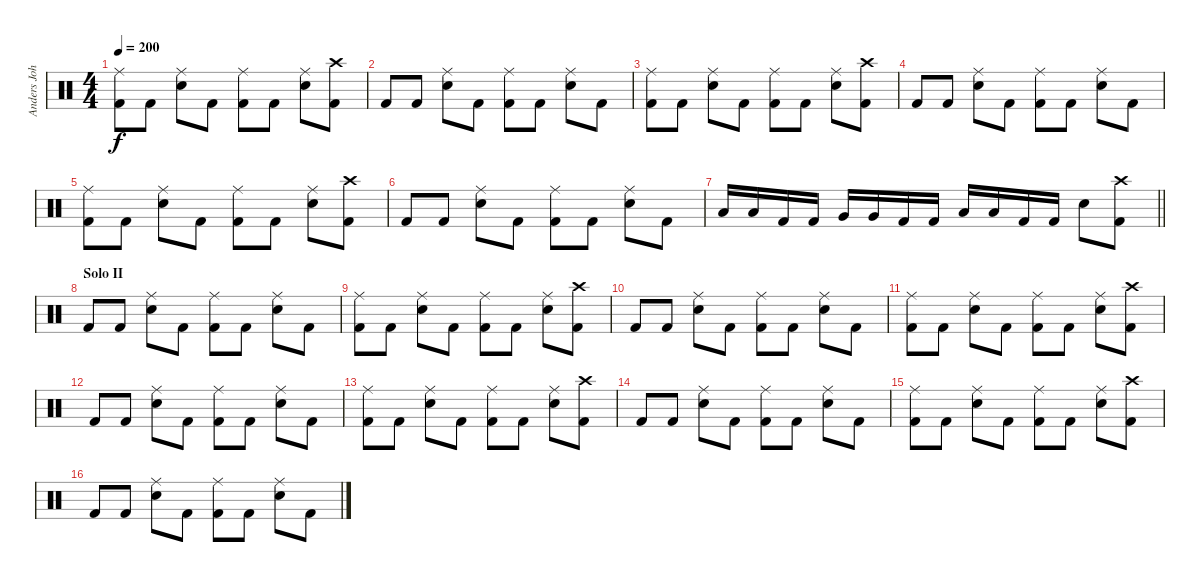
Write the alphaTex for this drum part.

\track ("Anders Johansson" "Anders Joh") {instrument percussion}
\staff {score}
\articulation defaults
\ts (4 4)
\tempo 200
\clef neutral
\ks c
("Ride (middle)" "Kick (hit) 2").8{dy f} "Kick (hit) 2".8 ("Ride (middle)" "Snare (hit) 2").8 "Kick (hit) 2".8 ("Ride (middle)" "Kick (hit) 2").8 "Kick (hit) 2".8 ("Ride (middle)" "Snare (hit) 2").8 ("Crash high (hit)" "Kick (hit) 2").8 |
"Kick (hit) 2".8 "Kick (hit) 2".8 ("Ride (middle)" "Snare (hit) 2").8 "Kick (hit) 2".8 ("Ride (middle)" "Kick (hit) 2").8 "Kick (hit) 2".8 ("Ride (middle)" "Snare (hit) 2").8 "Kick (hit) 2".8 |
("Ride (middle)" "Kick (hit) 2").8 "Kick (hit) 2".8 ("Ride (middle)" "Snare (hit) 2").8 "Kick (hit) 2".8 ("Ride (middle)" "Kick (hit) 2").8 "Kick (hit) 2".8 ("Ride (middle)" "Snare (hit) 2").8 ("Crash high (hit)" "Kick (hit) 2").8 |
"Kick (hit) 2".8 "Kick (hit) 2".8 ("Ride (middle)" "Snare (hit) 2").8 "Kick (hit) 2".8 ("Ride (middle)" "Kick (hit) 2").8 "Kick (hit) 2".8 ("Ride (middle)" "Snare (hit) 2").8 "Kick (hit) 2".8 |
("Ride (middle)" "Kick (hit) 2").8 "Kick (hit) 2".8 ("Ride (middle)" "Snare (hit) 2").8 "Kick (hit) 2".8 ("Ride (middle)" "Kick (hit) 2").8 "Kick (hit) 2".8 ("Ride (middle)" "Snare (hit) 2").8 ("Crash high (hit)" "Kick (hit) 2").8 |
"Kick (hit) 2".8 "Kick (hit) 2".8 ("Ride (middle)" "Snare (hit) 2").8 "Kick (hit) 2".8 ("Ride (middle)" "Kick (hit) 2").8 "Kick (hit) 2".8 ("Ride (middle)" "Snare (hit) 2").8 "Kick (hit) 2".8 |
\barLineRight lightlight "Low Tom (hit)".16 "Low Tom (hit)".16 "Kick (hit) 2".16 "Kick (hit) 2".16 "Very Low Tom (hit)".16 "Very Low Tom (hit)".16 "Kick (hit) 2".16 "Kick (hit) 2".16 "Low Floor Tom (hit)".16 "Low Floor Tom (hit)".16 "Kick (hit) 2".16 "Kick (hit) 2".16 "Snare (hit) 2".8
("Crash high (hit)" "Kick (hit) 2").8 |
\section ("" "Solo II")
"Kick (hit) 2".8 "Kick (hit) 2".8 ("Ride (middle)" "Snare (hit) 2").8 "Kick (hit) 2".8 ("Ride (middle)" "Kick (hit) 2").8 "Kick (hit) 2".8 ("Ride (middle)" "Snare (hit) 2").8 "Kick (hit) 2".8 |
("Ride (middle)" "Kick (hit) 2").8 "Kick (hit) 2".8 ("Ride (middle)" "Snare (hit) 2").8 "Kick (hit) 2".8 ("Ride (middle)" "Kick (hit) 2").8 "Kick (hit) 2".8 ("Ride (middle)" "Snare (hit) 2").8 ("Crash high (hit)" "Kick (hit) 2").8 |
"Kick (hit) 2".8 "Kick (hit) 2".8 ("Ride (middle)" "Snare (hit) 2").8 "Kick (hit) 2".8 ("Ride (middle)" "Kick (hit) 2").8 "Kick (hit) 2".8 ("Ride (middle)" "Snare (hit) 2").8 "Kick (hit) 2".8 |
("Ride (middle)" "Kick (hit) 2").8 "Kick (hit) 2".8 ("Ride (middle)" "Snare (hit) 2").8 "Kick (hit) 2".8 ("Ride (middle)" "Kick (hit) 2").8 "Kick (hit) 2".8 ("Ride (middle)" "Snare (hit) 2").8 ("Crash high (hit)" "Kick (hit) 2").8 |
"Kick (hit) 2".8 "Kick (hit) 2".8 ("Ride (middle)" "Snare (hit) 2").8 "Kick (hit) 2".8 ("Ride (middle)" "Kick (hit) 2").8 "Kick (hit) 2".8 ("Ride (middle)" "Snare (hit) 2").8 "Kick (hit) 2".8 |
("Ride (middle)" "Kick (hit) 2").8 "Kick (hit) 2".8 ("Ride (middle)" "Snare (hit) 2").8 "Kick (hit) 2".8 ("Ride (middle)" "Kick (hit) 2").8 "Kick (hit) 2".8 ("Ride (middle)" "Snare (hit) 2").8 ("Crash high (hit)" "Kick (hit) 2").8 |
"Kick (hit) 2".8 "Kick (hit) 2".8 ("Ride (middle)" "Snare (hit) 2").8 "Kick (hit) 2".8 ("Ride (middle)" "Kick (hit) 2").8 "Kick (hit) 2".8 ("Ride (middle)" "Snare (hit) 2").8 "Kick (hit) 2".8 |
("Ride (middle)" "Kick (hit) 2").8 "Kick (hit) 2".8 ("Ride (middle)" "Snare (hit) 2").8 "Kick (hit) 2".8 ("Ride (middle)" "Kick (hit) 2").8 "Kick (hit) 2".8 ("Ride (middle)" "Snare (hit) 2").8 ("Crash high (hit)" "Kick (hit) 2").8 |
"Kick (hit) 2".8 "Kick (hit) 2".8 ("Ride (middle)" "Snare (hit) 2").8 "Kick (hit) 2".8 ("Ride (middle)" "Kick (hit) 2").8 "Kick (hit) 2".8 ("Ride (middle)" "Snare (hit) 2").8 "Kick (hit) 2".8
